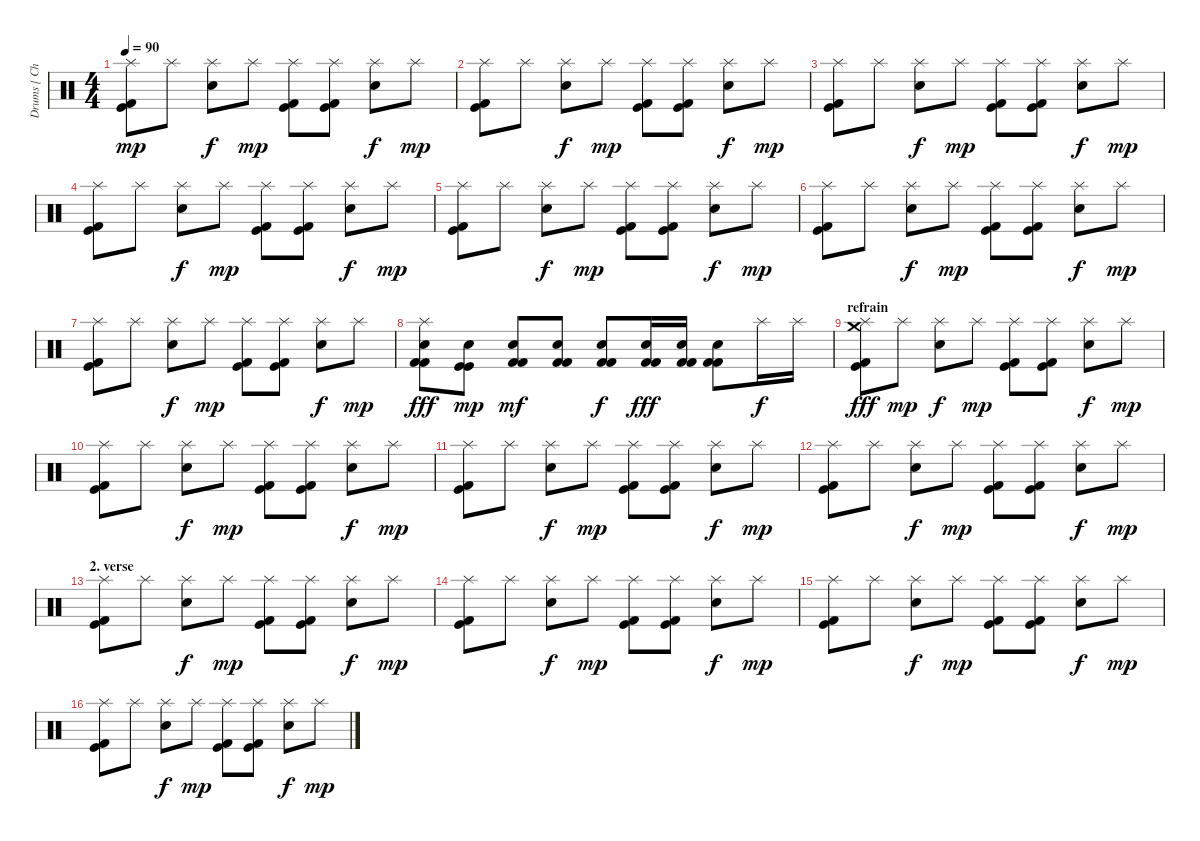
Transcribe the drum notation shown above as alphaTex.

\track ("Drums [ Christoph Schneider ]" "Drums [ Ch") {instrument percussion}
\staff {score}
\articulation defaults
\ts (4 4)
\tempo 90
\clef neutral
\ks c
("Splash (hit)" "Kick (hit)" "Kick (hit) 2").8{dy mp} "Splash (hit)".8 ("Splash (hit)" "Snare (hit) 2").8{dy f} "Splash (hit)".8{dy mp} ("Splash (hit)" "Kick (hit)" "Kick (hit) 2").8 ("Splash (hit)" "Kick (hit)" "Kick (hit) 2").8 ("Splash (hit)" "Snare (hit) 2").8{dy f} "Splash (hit)".8{dy mp} |
("Splash (hit)" "Kick (hit)" "Kick (hit) 2").8 "Splash (hit)".8 ("Splash (hit)" "Snare (hit) 2").8{dy f} "Splash (hit)".8{dy mp} ("Splash (hit)" "Kick (hit)" "Kick (hit) 2").8 ("Splash (hit)" "Kick (hit)" "Kick (hit) 2").8 ("Splash (hit)" "Snare (hit) 2").8{dy f} "Splash (hit)".8{dy mp} |
("Splash (hit)" "Kick (hit)" "Kick (hit) 2").8 "Splash (hit)".8 ("Splash (hit)" "Snare (hit) 2").8{dy f} "Splash (hit)".8{dy mp} ("Splash (hit)" "Kick (hit)" "Kick (hit) 2").8 ("Splash (hit)" "Kick (hit)" "Kick (hit) 2").8 ("Splash (hit)" "Snare (hit) 2").8{dy f} "Splash (hit)".8{dy mp} |
("Splash (hit)" "Kick (hit)" "Kick (hit) 2").8 "Splash (hit)".8 ("Splash (hit)" "Snare (hit) 2").8{dy f} "Splash (hit)".8{dy mp} ("Splash (hit)" "Kick (hit)" "Kick (hit) 2").8 ("Splash (hit)" "Kick (hit)" "Kick (hit) 2").8 ("Splash (hit)" "Snare (hit) 2").8{dy f} "Splash (hit)".8{dy mp} |
("Splash (hit)" "Kick (hit)" "Kick (hit) 2").8 "Splash (hit)".8 ("Splash (hit)" "Snare (hit) 2").8{dy f} "Splash (hit)".8{dy mp} ("Splash (hit)" "Kick (hit)" "Kick (hit) 2").8 ("Splash (hit)" "Kick (hit)" "Kick (hit) 2").8 ("Splash (hit)" "Snare (hit) 2").8{dy f} "Splash (hit)".8{dy mp} |
("Splash (hit)" "Kick (hit)" "Kick (hit) 2").8 "Splash (hit)".8 ("Splash (hit)" "Snare (hit) 2").8{dy f} "Splash (hit)".8{dy mp} ("Splash (hit)" "Kick (hit)" "Kick (hit) 2").8 ("Splash (hit)" "Kick (hit)" "Kick (hit) 2").8 ("Splash (hit)" "Snare (hit) 2").8{dy f} "Splash (hit)".8{dy mp} |
("Splash (hit)" "Kick (hit)" "Kick (hit) 2").8 "Splash (hit)".8 ("Splash (hit)" "Snare (hit) 2").8{dy f} "Splash (hit)".8{dy mp} ("Splash (hit)" "Kick (hit)" "Kick (hit) 2").8 ("Splash (hit)" "Kick (hit)" "Kick (hit) 2").8 ("Splash (hit)" "Snare (hit) 2").8{dy f} "Splash (hit)".8{dy mp} |
("Kick (hit) 2" "Kick (hit) 2" "Electric Snare (hit)" "Splash (hit)").8{dy fff} ("Kick (hit)" "Kick (hit)" "Electric Snare (hit)").8{dy mp} ("Kick (hit) 2" "Kick (hit) 2" "Electric Snare (hit)").8{dy mf} ("Kick (hit) 2" "Kick (hit) 2" "Electric Snare (hit)").8 ("Kick (hit) 2" "Kick (hit) 2" "Electric Snare (hit)").8{dy f} ("Kick (hit) 2" "Kick (hit) 2" "Electric Snare (hit)").16{dy fff} ("Kick (hit) 2" "Kick (hit) 2" "Electric Snare (hit)").16 ("Kick (hit) 2" "Kick (hit) 2" "Electric Snare (hit)").8 "Splash (hit)".16{dy f} "Splash (hit)".16 |
\section ("" "refrain")
("Splash (hit)" "Kick (hit)" "Kick (hit) 2" "Crash medium (hit)").8{dy fff} "Splash (hit)".8{dy mp} ("Splash (hit)" "Snare (hit) 2").8{dy f} "Splash (hit)".8{dy mp} ("Splash (hit)" "Kick (hit)" "Kick (hit) 2").8 ("Splash (hit)" "Kick (hit)" "Kick (hit) 2").8 ("Splash (hit)" "Snare (hit) 2").8{dy f} "Splash (hit)".8{dy mp} |
("Splash (hit)" "Kick (hit)" "Kick (hit) 2").8 "Splash (hit)".8 ("Splash (hit)" "Snare (hit) 2").8{dy f} "Splash (hit)".8{dy mp} ("Splash (hit)" "Kick (hit)" "Kick (hit) 2").8 ("Splash (hit)" "Kick (hit)" "Kick (hit) 2").8 ("Splash (hit)" "Snare (hit) 2").8{dy f} "Splash (hit)".8{dy mp} |
("Splash (hit)" "Kick (hit)" "Kick (hit) 2").8 "Splash (hit)".8 ("Splash (hit)" "Snare (hit) 2").8{dy f} "Splash (hit)".8{dy mp} ("Splash (hit)" "Kick (hit)" "Kick (hit) 2").8 ("Splash (hit)" "Kick (hit)" "Kick (hit) 2").8 ("Splash (hit)" "Snare (hit) 2").8{dy f} "Splash (hit)".8{dy mp} |
("Splash (hit)" "Kick (hit)" "Kick (hit) 2").8 "Splash (hit)".8 ("Splash (hit)" "Snare (hit) 2").8{dy f} "Splash (hit)".8{dy mp} ("Splash (hit)" "Kick (hit)" "Kick (hit) 2").8 ("Splash (hit)" "Kick (hit)" "Kick (hit) 2").8 ("Splash (hit)" "Snare (hit) 2").8{dy f} "Splash (hit)".8{dy mp} |
\section ("" "2. verse")
("Splash (hit)" "Kick (hit)" "Kick (hit) 2").8 "Splash (hit)".8 ("Splash (hit)" "Snare (hit) 2").8{dy f} "Splash (hit)".8{dy mp} ("Splash (hit)" "Kick (hit)" "Kick (hit) 2").8 ("Splash (hit)" "Kick (hit)" "Kick (hit) 2").8 ("Splash (hit)" "Snare (hit) 2").8{dy f} "Splash (hit)".8{dy mp} |
("Splash (hit)" "Kick (hit)" "Kick (hit) 2").8 "Splash (hit)".8 ("Splash (hit)" "Snare (hit) 2").8{dy f} "Splash (hit)".8{dy mp} ("Splash (hit)" "Kick (hit)" "Kick (hit) 2").8 ("Splash (hit)" "Kick (hit)" "Kick (hit) 2").8 ("Splash (hit)" "Snare (hit) 2").8{dy f} "Splash (hit)".8{dy mp} |
("Splash (hit)" "Kick (hit)" "Kick (hit) 2").8 "Splash (hit)".8 ("Splash (hit)" "Snare (hit) 2").8{dy f} "Splash (hit)".8{dy mp} ("Splash (hit)" "Kick (hit)" "Kick (hit) 2").8 ("Splash (hit)" "Kick (hit)" "Kick (hit) 2").8 ("Splash (hit)" "Snare (hit) 2").8{dy f} "Splash (hit)".8{dy mp} |
("Splash (hit)" "Kick (hit)" "Kick (hit) 2").8 "Splash (hit)".8 ("Splash (hit)" "Snare (hit) 2").8{dy f} "Splash (hit)".8{dy mp} ("Splash (hit)" "Kick (hit)" "Kick (hit) 2").8 ("Splash (hit)" "Kick (hit)" "Kick (hit) 2").8 ("Splash (hit)" "Snare (hit) 2").8{dy f} "Splash (hit)".8{dy mp}
